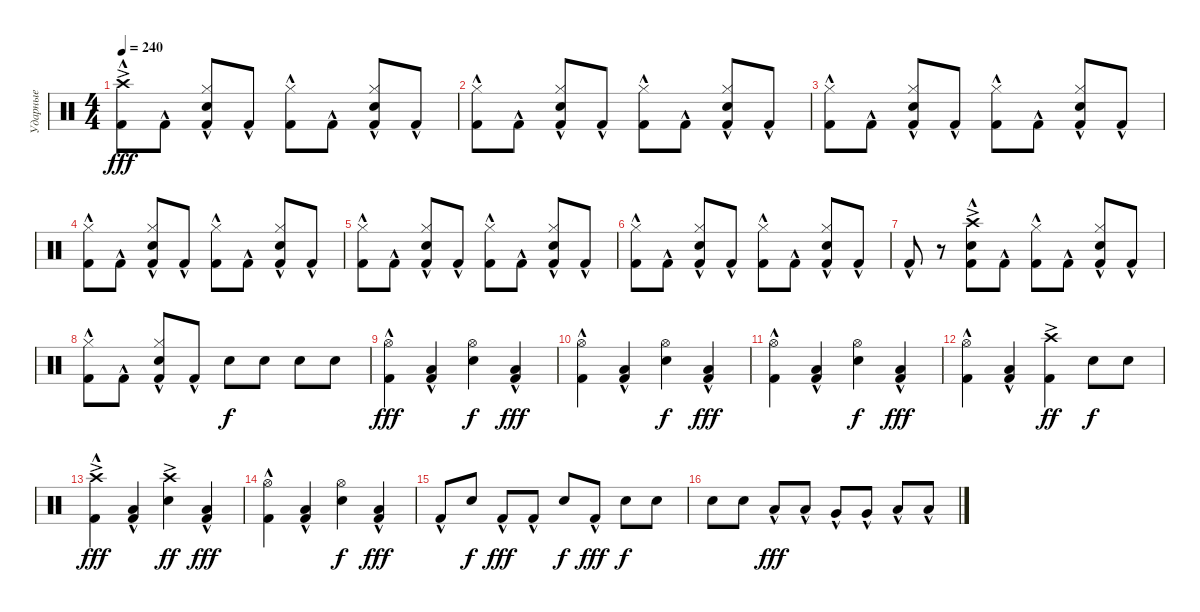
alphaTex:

\track ("Ударные" "Ударные") {instrument percussion}
\staff {score}
\articulation defaults
\ts (4 4)
\tempo 240
\clef neutral
\ks c
("Crash high (hit)"{ac} "Kick (hit) 2"{hac}).8{dy fff} "Kick (hit) 2"{hac}.8 ("Hi-Hat (closed)" "Snare (hit) 2" "Kick (hit) 2"{hac}).8 "Kick (hit) 2"{hac}.8 ("Hi-Hat (closed)" "Kick (hit) 2"{hac}).8 "Kick (hit) 2"{hac}.8 ("Hi-Hat (closed)" "Snare (hit) 2" "Kick (hit) 2"{hac}).8 "Kick (hit) 2"{hac}.8 |
("Hi-Hat (closed)" "Kick (hit) 2"{hac}).8 "Kick (hit) 2"{hac}.8 ("Hi-Hat (closed)" "Snare (hit) 2" "Kick (hit) 2"{hac}).8 "Kick (hit) 2"{hac}.8 ("Hi-Hat (closed)" "Kick (hit) 2"{hac}).8 "Kick (hit) 2"{hac}.8 ("Hi-Hat (closed)" "Snare (hit) 2" "Kick (hit) 2"{hac}).8 "Kick (hit) 2"{hac}.8 |
("Hi-Hat (closed)" "Kick (hit) 2"{hac}).8 "Kick (hit) 2"{hac}.8 ("Hi-Hat (closed)" "Snare (hit) 2" "Kick (hit) 2"{hac}).8 "Kick (hit) 2"{hac}.8 ("Hi-Hat (closed)" "Kick (hit) 2"{hac}).8 "Kick (hit) 2"{hac}.8 ("Hi-Hat (closed)" "Snare (hit) 2" "Kick (hit) 2"{hac}).8 "Kick (hit) 2"{hac}.8 |
("Hi-Hat (closed)" "Kick (hit) 2"{hac}).8 "Kick (hit) 2"{hac}.8 ("Hi-Hat (closed)" "Snare (hit) 2" "Kick (hit) 2"{hac}).8 "Kick (hit) 2"{hac}.8 ("Hi-Hat (closed)" "Kick (hit) 2"{hac}).8 "Kick (hit) 2"{hac}.8 ("Hi-Hat (closed)" "Snare (hit) 2" "Kick (hit) 2"{hac}).8 "Kick (hit) 2"{hac}.8 |
("Hi-Hat (closed)" "Kick (hit) 2"{hac}).8 "Kick (hit) 2"{hac}.8 ("Hi-Hat (closed)" "Snare (hit) 2" "Kick (hit) 2"{hac}).8 "Kick (hit) 2"{hac}.8 ("Hi-Hat (closed)" "Kick (hit) 2"{hac}).8 "Kick (hit) 2"{hac}.8 ("Hi-Hat (closed)" "Snare (hit) 2" "Kick (hit) 2"{hac}).8 "Kick (hit) 2"{hac}.8 |
("Hi-Hat (closed)" "Kick (hit) 2"{hac}).8 "Kick (hit) 2"{hac}.8 ("Hi-Hat (closed)" "Snare (hit) 2" "Kick (hit) 2"{hac}).8 "Kick (hit) 2"{hac}.8 ("Hi-Hat (closed)" "Kick (hit) 2"{hac}).8 "Kick (hit) 2"{hac}.8 ("Hi-Hat (closed)" "Snare (hit) 2" "Kick (hit) 2"{hac}).8 "Kick (hit) 2"{hac}.8 |
"Kick (hit) 2"{hac}.8 r.8 ("Crash high (hit)"{ac} "Snare (hit) 2" "Kick (hit) 2"{hac}).8 "Kick (hit) 2"{hac}.8 ("Hi-Hat (closed)" "Kick (hit) 2"{hac}).8 "Kick (hit) 2"{hac}.8 ("Hi-Hat (closed)" "Snare (hit) 2" "Kick (hit) 2"{hac}).8 "Kick (hit) 2"{hac}.8 |
("Hi-Hat (closed)" "Kick (hit) 2"{hac}).8 "Kick (hit) 2"{hac}.8 ("Hi-Hat (closed)" "Snare (hit) 2" "Kick (hit) 2"{hac}).8 "Kick (hit) 2"{hac}.8 "Snare (hit) 2".8{dy f} "Snare (hit) 2".8 "Snare (hit) 2".8 "Snare (hit) 2".8 |
("Hi-Hat (open)" "Kick (hit) 2"{hac}).4{dy fff} ("Low Floor Tom (hit)"{hac} "Kick (hit) 2"{hac}).4 ("Hi-Hat (open)" "Snare (hit) 2").4{dy f} ("Low Floor Tom (hit)"{hac} "Kick (hit) 2"{hac}).4{dy fff} |
("Hi-Hat (open)" "Kick (hit) 2"{hac}).4 ("Low Floor Tom (hit)"{hac} "Kick (hit) 2"{hac}).4 ("Hi-Hat (open)" "Snare (hit) 2").4{dy f} ("Low Floor Tom (hit)"{hac} "Kick (hit) 2"{hac}).4{dy fff} |
("Hi-Hat (open)" "Kick (hit) 2"{hac}).4 ("Low Floor Tom (hit)"{hac} "Kick (hit) 2"{hac}).4 ("Hi-Hat (open)" "Snare (hit) 2").4{dy f} ("Low Floor Tom (hit)"{hac} "Kick (hit) 2"{hac}).4{dy fff} |
("Hi-Hat (open)" "Kick (hit) 2"{hac}).4 ("Low Floor Tom (hit)"{hac} "Kick (hit) 2"{hac}).4 ("Crash high (hit)"{ac} "Kick (hit) 2").4{dy ff} "Snare (hit) 2".8{dy f} "Snare (hit) 2".8 |
("Crash high (hit)"{ac} "Kick (hit) 2"{hac}).4{dy fff} ("Low Floor Tom (hit)"{hac} "Kick (hit) 2"{hac}).4 ("Crash high (hit)"{ac} "Snare (hit) 2").4{dy ff} ("Low Floor Tom (hit)"{hac} "Kick (hit) 2"{hac}).4{dy fff} |
("Hi-Hat (open)" "Kick (hit) 2"{hac}).4 ("Low Floor Tom (hit)"{hac} "Kick (hit) 2"{hac}).4 ("Hi-Hat (open)" "Snare (hit) 2").4{dy f} ("Low Floor Tom (hit)"{hac} "Kick (hit) 2"{hac}).4{dy fff} |
"Kick (hit) 2"{hac}.8 "Snare (hit) 2".8{dy f} "Kick (hit) 2"{hac}.8{dy fff} "Kick (hit) 2"{hac}.8 "Snare (hit) 2".8{dy f} "Kick (hit) 2"{hac}.8{dy fff} "Snare (hit) 2".8{dy f} "Snare (hit) 2".8 |
"Snare (hit) 2".8 "Snare (hit) 2".8 "Low Tom (hit)"{hac}.8{dy fff} "Low Tom (hit)"{hac}.8 "Very Low Tom (hit)"{hac}.8 "Very Low Tom (hit)"{hac}.8 "Low Floor Tom (hit)"{hac}.8 "Low Floor Tom (hit)"{hac}.8
